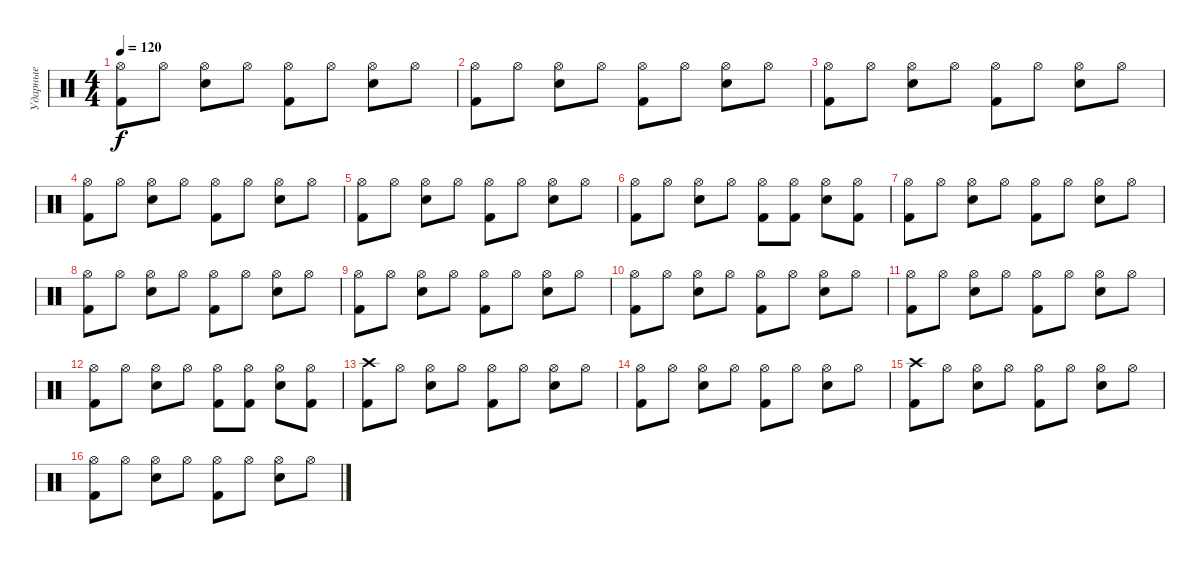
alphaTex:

\track ("Ударные" "Ударные") {instrument percussion}
\staff {score}
\articulation defaults
\ts (4 4)
\tempo 120
\clef neutral
\ks c
("Hi-Hat (open)" "Kick (hit) 2").8{dy f} "Hi-Hat (open)".8 ("Snare (hit) 2" "Hi-Hat (open)").8 "Hi-Hat (open)".8 ("Kick (hit) 2" "Hi-Hat (open)").8 "Hi-Hat (open)".8 ("Snare (hit) 2" "Hi-Hat (open)").8 "Hi-Hat (open)".8 |
("Hi-Hat (open)" "Kick (hit) 2").8 "Hi-Hat (open)".8 ("Snare (hit) 2" "Hi-Hat (open)").8 "Hi-Hat (open)".8 ("Kick (hit) 2" "Hi-Hat (open)").8 "Hi-Hat (open)".8 ("Snare (hit) 2" "Hi-Hat (open)").8 "Hi-Hat (open)".8 |
("Hi-Hat (open)" "Kick (hit) 2").8 "Hi-Hat (open)".8 ("Snare (hit) 2" "Hi-Hat (open)").8 "Hi-Hat (open)".8 ("Kick (hit) 2" "Hi-Hat (open)").8 "Hi-Hat (open)".8 ("Snare (hit) 2" "Hi-Hat (open)").8 "Hi-Hat (open)".8 |
("Hi-Hat (open)" "Kick (hit) 2").8 "Hi-Hat (open)".8 ("Snare (hit) 2" "Hi-Hat (open)").8 "Hi-Hat (open)".8 ("Kick (hit) 2" "Hi-Hat (open)").8 "Hi-Hat (open)".8 ("Snare (hit) 2" "Hi-Hat (open)").8 "Hi-Hat (open)".8 |
("Hi-Hat (open)" "Kick (hit) 2").8 "Hi-Hat (open)".8 ("Snare (hit) 2" "Hi-Hat (open)").8 "Hi-Hat (open)".8 ("Kick (hit) 2" "Hi-Hat (open)").8 "Hi-Hat (open)".8 ("Snare (hit) 2" "Hi-Hat (open)").8 "Hi-Hat (open)".8 |
("Hi-Hat (open)" "Kick (hit) 2").8 "Hi-Hat (open)".8 ("Snare (hit) 2" "Hi-Hat (open)").8 "Hi-Hat (open)".8 ("Kick (hit) 2" "Hi-Hat (open)").8 ("Kick (hit) 2" "Hi-Hat (open)").8 ("Snare (hit) 2" "Hi-Hat (open)").8 ("Kick (hit) 2" "Hi-Hat (open)").8 |
("Hi-Hat (open)" "Kick (hit) 2").8 "Hi-Hat (open)".8 ("Snare (hit) 2" "Hi-Hat (open)").8 "Hi-Hat (open)".8 ("Kick (hit) 2" "Hi-Hat (open)").8 "Hi-Hat (open)".8 ("Snare (hit) 2" "Hi-Hat (open)").8 "Hi-Hat (open)".8 |
("Hi-Hat (open)" "Kick (hit) 2").8 "Hi-Hat (open)".8 ("Snare (hit) 2" "Hi-Hat (open)").8 "Hi-Hat (open)".8 ("Kick (hit) 2" "Hi-Hat (open)").8 "Hi-Hat (open)".8 ("Snare (hit) 2" "Hi-Hat (open)").8 "Hi-Hat (open)".8 |
("Hi-Hat (open)" "Kick (hit) 2").8 "Hi-Hat (open)".8 ("Snare (hit) 2" "Hi-Hat (open)").8 "Hi-Hat (open)".8 ("Kick (hit) 2" "Hi-Hat (open)").8 "Hi-Hat (open)".8 ("Snare (hit) 2" "Hi-Hat (open)").8 "Hi-Hat (open)".8 |
("Hi-Hat (open)" "Kick (hit) 2").8 "Hi-Hat (open)".8 ("Snare (hit) 2" "Hi-Hat (open)").8 "Hi-Hat (open)".8 ("Kick (hit) 2" "Hi-Hat (open)").8 "Hi-Hat (open)".8 ("Snare (hit) 2" "Hi-Hat (open)").8 "Hi-Hat (open)".8 |
("Hi-Hat (open)" "Kick (hit) 2").8 "Hi-Hat (open)".8 ("Snare (hit) 2" "Hi-Hat (open)").8 "Hi-Hat (open)".8 ("Kick (hit) 2" "Hi-Hat (open)").8 "Hi-Hat (open)".8 ("Snare (hit) 2" "Hi-Hat (open)").8 "Hi-Hat (open)".8 |
("Hi-Hat (open)" "Kick (hit) 2").8 "Hi-Hat (open)".8 ("Snare (hit) 2" "Hi-Hat (open)").8 "Hi-Hat (open)".8 ("Kick (hit) 2" "Hi-Hat (open)").8 ("Kick (hit) 2" "Hi-Hat (open)").8 ("Snare (hit) 2" "Hi-Hat (open)").8 ("Kick (hit) 2" "Hi-Hat (open)").8 |
("Crash high (hit)" "Kick (hit) 2").8 "Hi-Hat (open)".8 ("Snare (hit) 2" "Hi-Hat (open)").8 "Hi-Hat (open)".8 ("Kick (hit) 2" "Hi-Hat (open)").8 "Hi-Hat (open)".8 ("Snare (hit) 2" "Hi-Hat (open)").8 "Hi-Hat (open)".8 |
("Hi-Hat (open)" "Kick (hit) 2").8 "Hi-Hat (open)".8 ("Snare (hit) 2" "Hi-Hat (open)").8 "Hi-Hat (open)".8 ("Kick (hit) 2" "Hi-Hat (open)").8 "Hi-Hat (open)".8 ("Snare (hit) 2" "Hi-Hat (open)").8 "Hi-Hat (open)".8 |
("Crash high (hit)" "Kick (hit) 2").8 "Hi-Hat (open)".8 ("Snare (hit) 2" "Hi-Hat (open)").8 "Hi-Hat (open)".8 ("Kick (hit) 2" "Hi-Hat (open)").8 "Hi-Hat (open)".8 ("Snare (hit) 2" "Hi-Hat (open)").8 "Hi-Hat (open)".8 |
("Hi-Hat (open)" "Kick (hit) 2").8 "Hi-Hat (open)".8 ("Snare (hit) 2" "Hi-Hat (open)").8 "Hi-Hat (open)".8 ("Kick (hit) 2" "Hi-Hat (open)").8 "Hi-Hat (open)".8 ("Snare (hit) 2" "Hi-Hat (open)").8 "Hi-Hat (open)".8
